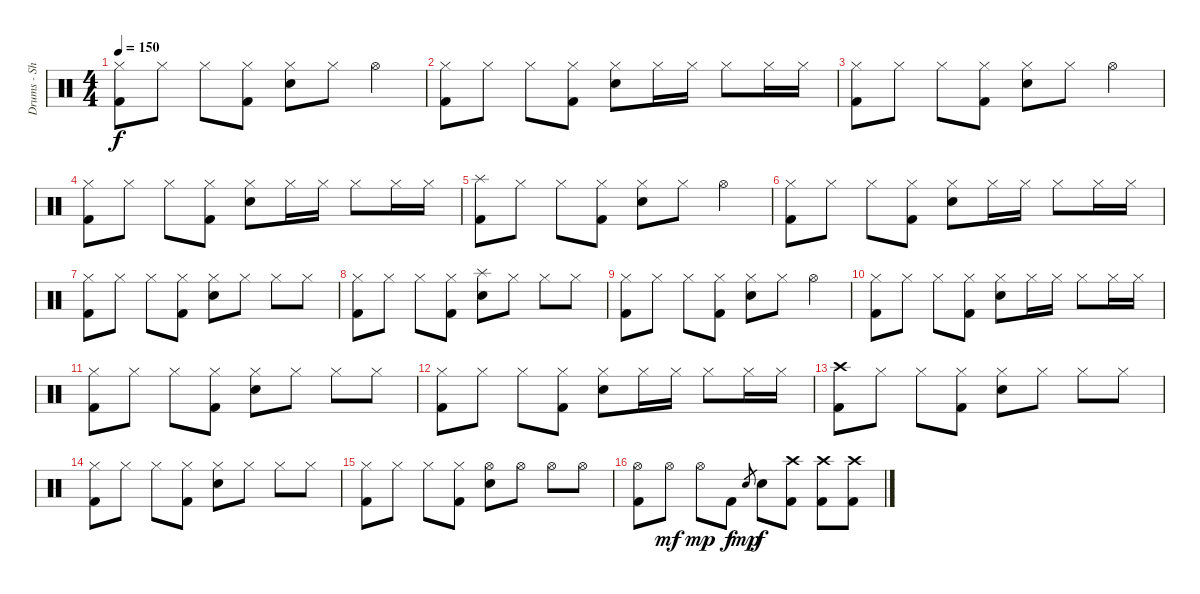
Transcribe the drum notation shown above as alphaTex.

\track ("Drums - Shelton" "Drums - Sh") {instrument percussion}
\staff {score}
\articulation defaults
\ts (4 4)
\tempo 150
\clef neutral
\ks c
("Hi-Hat (closed)" "Kick (hit) 2").8{dy f} "Hi-Hat (closed)".8 "Hi-Hat (closed)".8 ("Hi-Hat (closed)" "Kick (hit) 2").8 ("Hi-Hat (closed)" "Electric Snare (hit)").8 "Hi-Hat (closed)".8 "Hi-Hat (open)".4 |
("Hi-Hat (closed)" "Kick (hit) 2").8 "Hi-Hat (closed)".8 "Hi-Hat (closed)".8 ("Hi-Hat (closed)" "Kick (hit) 2").8 ("Hi-Hat (closed)" "Electric Snare (hit)").8 "Hi-Hat (closed)".16 "Hi-Hat (closed)".16 "Hi-Hat (closed)".8 "Hi-Hat (closed)".16 "Hi-Hat (closed)".16 |
("Hi-Hat (closed)" "Kick (hit) 2").8 "Hi-Hat (closed)".8 "Hi-Hat (closed)".8 ("Hi-Hat (closed)" "Kick (hit) 2").8 ("Hi-Hat (closed)" "Electric Snare (hit)").8 "Hi-Hat (closed)".8 "Hi-Hat (open)".4 |
("Hi-Hat (closed)" "Kick (hit) 2").8 "Hi-Hat (closed)".8 "Hi-Hat (closed)".8 ("Hi-Hat (closed)" "Kick (hit) 2").8 ("Hi-Hat (closed)" "Electric Snare (hit)").8 "Hi-Hat (closed)".16 "Hi-Hat (closed)".16 "Hi-Hat (closed)".8 "Hi-Hat (closed)".16 "Hi-Hat (closed)".16 |
("Splash (hit)" "Kick (hit) 2").8 "Hi-Hat (closed)".8 "Hi-Hat (closed)".8 ("Hi-Hat (closed)" "Kick (hit) 2").8 ("Hi-Hat (closed)" "Electric Snare (hit)").8 "Hi-Hat (closed)".8 "Hi-Hat (open)".4 |
("Hi-Hat (closed)" "Kick (hit) 2").8 "Hi-Hat (closed)".8 "Hi-Hat (closed)".8 ("Hi-Hat (closed)" "Kick (hit) 2").8 ("Hi-Hat (closed)" "Electric Snare (hit)").8 "Hi-Hat (closed)".16 "Hi-Hat (closed)".16 "Hi-Hat (closed)".8 "Hi-Hat (closed)".16 "Hi-Hat (closed)".16 |
("Hi-Hat (closed)" "Kick (hit) 2").8 "Hi-Hat (closed)".8 "Hi-Hat (closed)".8 ("Hi-Hat (closed)" "Kick (hit) 2").8 ("Hi-Hat (closed)" "Electric Snare (hit)").8 "Hi-Hat (closed)".8 "Hi-Hat (closed)".8 "Hi-Hat (closed)".8 |
("Hi-Hat (closed)" "Kick (hit) 2").8 "Hi-Hat (closed)".8 "Hi-Hat (closed)".8 ("Hi-Hat (closed)" "Kick (hit) 2").8 ("Splash (hit)" "Electric Snare (hit)").8 "Hi-Hat (closed)".8 "Hi-Hat (closed)".8 "Hi-Hat (closed)".8 |
("Hi-Hat (closed)" "Kick (hit) 2").8 "Hi-Hat (closed)".8 "Hi-Hat (closed)".8 ("Hi-Hat (closed)" "Kick (hit) 2").8 ("Hi-Hat (closed)" "Electric Snare (hit)").8 "Hi-Hat (closed)".8 "Hi-Hat (open)".4 |
("Hi-Hat (closed)" "Kick (hit) 2").8 "Hi-Hat (closed)".8 "Hi-Hat (closed)".8 ("Hi-Hat (closed)" "Kick (hit) 2").8 ("Hi-Hat (closed)" "Electric Snare (hit)").8 "Hi-Hat (closed)".16 "Hi-Hat (closed)".16 "Hi-Hat (closed)".8 "Hi-Hat (closed)".16 "Hi-Hat (closed)".16 |
("Hi-Hat (closed)" "Kick (hit) 2").8 "Hi-Hat (closed)".8 "Hi-Hat (closed)".8 ("Hi-Hat (closed)" "Kick (hit) 2").8 ("Hi-Hat (closed)" "Electric Snare (hit)").8 "Hi-Hat (closed)".8 "Hi-Hat (closed)".8 "Hi-Hat (closed)".8 |
("Hi-Hat (closed)" "Kick (hit) 2").8 "Hi-Hat (closed)".8 "Hi-Hat (closed)".8 ("Hi-Hat (closed)" "Kick (hit) 2").8 ("Hi-Hat (closed)" "Electric Snare (hit)").8 "Hi-Hat (closed)".16 "Hi-Hat (closed)".16 "Hi-Hat (closed)".8 "Hi-Hat (closed)".16 "Hi-Hat (closed)".16 |
("Crash high (hit)" "Kick (hit) 2").8 "Hi-Hat (closed)".8 "Hi-Hat (closed)".8 ("Hi-Hat (closed)" "Kick (hit) 2").8 ("Hi-Hat (closed)" "Electric Snare (hit)").8 "Hi-Hat (closed)".8 "Hi-Hat (closed)".8 "Hi-Hat (closed)".8 |
("Hi-Hat (closed)" "Kick (hit) 2").8 "Hi-Hat (closed)".8 "Hi-Hat (closed)".8 ("Hi-Hat (closed)" "Kick (hit) 2").8 ("Hi-Hat (closed)" "Electric Snare (hit)").8 "Hi-Hat (closed)".8 "Hi-Hat (closed)".8 "Hi-Hat (closed)".8 |
("Hi-Hat (closed)" "Kick (hit) 2").8 "Hi-Hat (closed)".8 "Hi-Hat (closed)".8 ("Hi-Hat (closed)" "Kick (hit) 2").8 ("Hi-Hat (open)" "Electric Snare (hit)").8 "Hi-Hat (open)".8 "Hi-Hat (open)".8 "Hi-Hat (open)".8 |
("Hi-Hat (open)" "Kick (hit) 2").8 "Hi-Hat (open)".8{dy mf} "Hi-Hat (open)".8{dy mp} "Kick (hit) 2".8{dy f} "Electric Snare (hit)".8{gr dy mp} "Electric Snare (hit)".8{dy f} ("Crash high (hit)" "Kick (hit) 2").8 ("Crash high (hit)" "Kick (hit) 2").8 ("Crash high (hit)" "Kick (hit) 2").8
